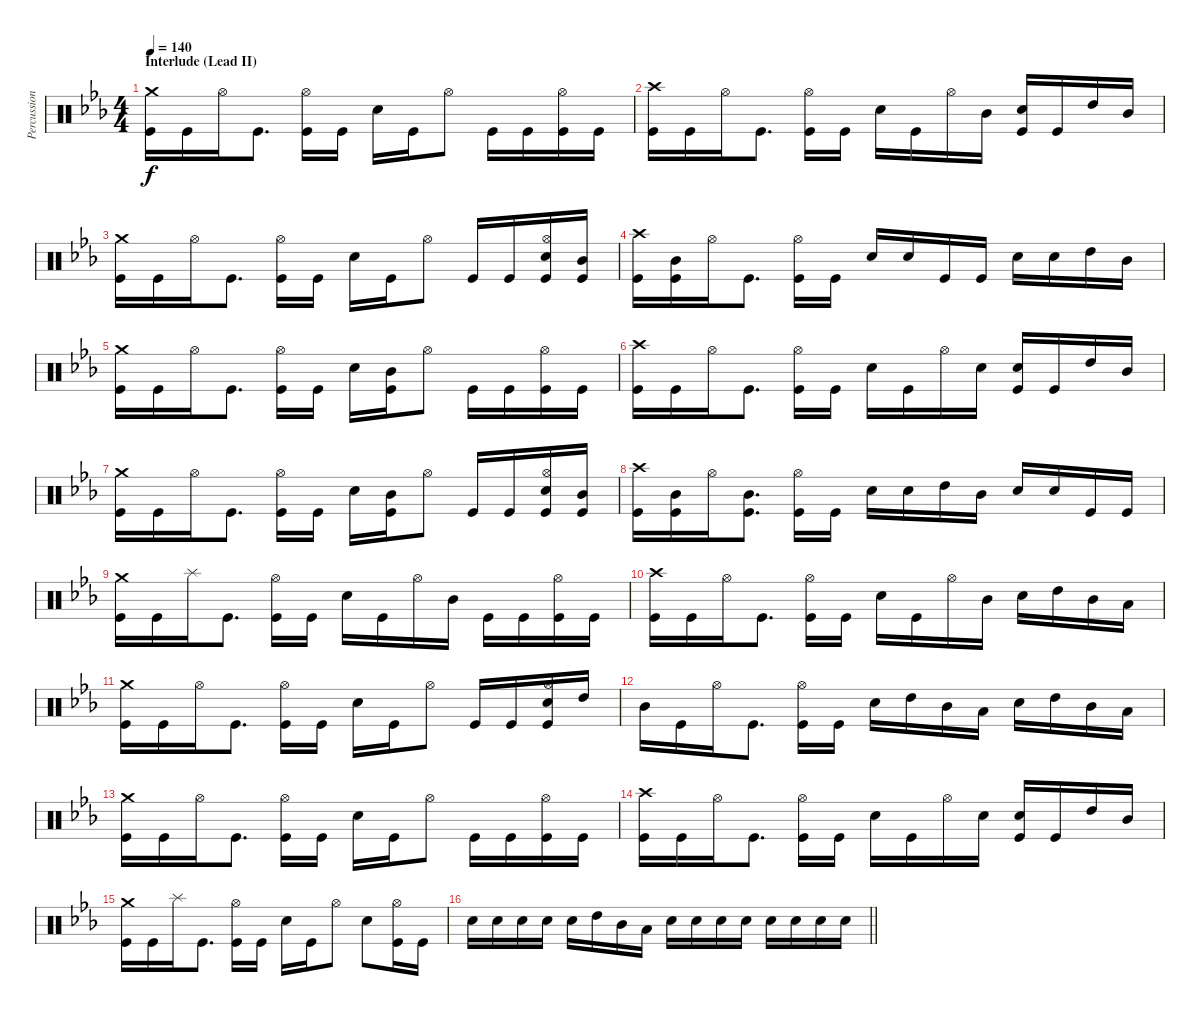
\track ("Percussion" "Percussion") {instrument percussion}
\staff {score}
\articulation defaults
\ts (4 4)
\section ("" "Interlude (Lead II)")
\tempo 140
\clef neutral
\ks eb
("Crash medium (hit)" "Kick (hit)").16{dy f} "Kick (hit)".16 "Hi-Hat (open)".16 "Kick (hit)".8{d} ("Hi-Hat (open)" "Kick (hit)").16 "Kick (hit)".16 "Electric Snare (hit)".16 "Kick (hit)".16 "Hi-Hat (open)".8 "Kick (hit)".16 "Kick (hit)".16 ("Hi-Hat (open)" "Kick (hit)").16 "Kick (hit)".16 |
("Crash high (hit)" "Kick (hit)").16 "Kick (hit)".16 "Hi-Hat (open)".16 "Kick (hit)".8{d} ("Hi-Hat (open)" "Kick (hit)").16 "Kick (hit)".16 "Electric Snare (hit)".16 "Kick (hit)".16 "Hi-Hat (open)".16 "Mid Tom (hit)".16 ("Electric Snare (hit)" "Kick (hit)").16 "Kick (hit)".16 "High Tom (hit)".16 "Mid Tom (hit)".16 |
("Crash medium (hit)" "Kick (hit)").16 "Kick (hit)".16 "Hi-Hat (open)".16 "Kick (hit)".8{d} ("Hi-Hat (open)" "Kick (hit)").16 "Kick (hit)".16 "Electric Snare (hit)".16 "Kick (hit)".16 "Hi-Hat (open)".8 "Kick (hit)".16 "Kick (hit)".16 ("Hi-Hat (open)" "Electric Snare (hit)" "Kick (hit)").16 ("Mid Tom (hit)" "Kick (hit)").16 |
("Crash high (hit)" "Kick (hit)").16 ("Mid Tom (hit)" "Kick (hit)").16 "Hi-Hat (open)".16 "Kick (hit)".8{d} ("Hi-Hat (open)" "Kick (hit)").16 "Kick (hit)".16 "Electric Snare (hit)".16 "Electric Snare (hit)".16 "Kick (hit)".16 "Kick (hit)".16 "Electric Snare (hit)".16 "Electric Snare (hit)".16 "High Tom (hit)".16 "Mid Tom (hit)".16 |
("Crash medium (hit)" "Kick (hit)").16 "Kick (hit)".16 "Hi-Hat (open)".16 "Kick (hit)".8{d} ("Hi-Hat (open)" "Kick (hit)").16 "Kick (hit)".16 "Electric Snare (hit)".16 ("Mid Tom (hit)" "Kick (hit)").16 "Hi-Hat (open)".8 "Kick (hit)".16 "Kick (hit)".16 ("Hi-Hat (open)" "Kick (hit)").16 "Kick (hit)".16 |
("Crash high (hit)" "Kick (hit)").16 "Kick (hit)".16 "Hi-Hat (open)".16 "Kick (hit)".8{d} ("Hi-Hat (open)" "Kick (hit)").16 "Kick (hit)".16 "Electric Snare (hit)".16 "Kick (hit)".16 "Hi-Hat (open)".16 "Electric Snare (hit)".16 ("Electric Snare (hit)" "Kick (hit)").16 "Kick (hit)".16 "High Tom (hit)".16 "Mid Tom (hit)".16 |
("Crash medium (hit)" "Kick (hit)").16 "Kick (hit)".16 "Hi-Hat (open)".16 "Kick (hit)".8{d} ("Hi-Hat (open)" "Kick (hit)").16 "Kick (hit)".16 "Electric Snare (hit)".16 ("Mid Tom (hit)" "Kick (hit)").16 "Hi-Hat (open)".8 "Kick (hit)".16 "Kick (hit)".16 ("Hi-Hat (open)" "Electric Snare (hit)" "Kick (hit)").16 ("Mid Tom (hit)" "Kick (hit)").16 |
("Crash high (hit)" "Kick (hit)").16 ("Mid Tom (hit)" "Kick (hit)").16 "Hi-Hat (open)".16 ("Mid Tom (hit)" "Kick (hit)").8{d} ("Hi-Hat (open)" "Kick (hit)").16 "Kick (hit)".16 "Electric Snare (hit)".16 "Electric Snare (hit)".16 "High Tom (hit)".16 "Mid Tom (hit)".16 "Electric Snare (hit)".16 "Electric Snare (hit)".16 "Kick (hit)".16 "Kick (hit)".16 |
("Crash medium (hit)" "Kick (hit)").16 "Kick (hit)".16 "Splash (hit)".16 "Kick (hit)".8{d} ("Hi-Hat (open)" "Kick (hit)").16 "Kick (hit)".16 "Electric Snare (hit)".16 "Kick (hit)".16 "Hi-Hat (open)".16 "Mid Tom (hit)".16 "Kick (hit)".16 "Kick (hit)".16 ("Hi-Hat (open)" "Kick (hit)").16 "Kick (hit)".16 |
("Crash high (hit)" "Kick (hit)").16 "Kick (hit)".16 "Hi-Hat (open)".16 "Kick (hit)".8{d} ("Hi-Hat (open)" "Kick (hit)").16 "Kick (hit)".16 "Electric Snare (hit)".16 "Kick (hit)".16 "Hi-Hat (open)".16 "Mid Tom (hit)".16 "Electric Snare (hit)".16 "High Tom (hit)".16 "Mid Tom (hit)".16 "Low Tom (hit)".16 |
("Crash medium (hit)" "Kick (hit)").16 "Kick (hit)".16 "Hi-Hat (open)".16 "Kick (hit)".8{d} ("Hi-Hat (open)" "Kick (hit)").16 "Kick (hit)".16 "Electric Snare (hit)".16 "Kick (hit)".16 "Hi-Hat (open)".8 "Kick (hit)".16 "Kick (hit)".16 ("Hi-Hat (open)" "Electric Snare (hit)" "Kick (hit)").16 "High Tom (hit)".16 |
"Mid Tom (hit)".16 "Kick (hit)".16 "Hi-Hat (open)".16 "Kick (hit)".8{d} ("Hi-Hat (open)" "Kick (hit)").16 "Kick (hit)".16 "Electric Snare (hit)".16 "High Tom (hit)".16 "Mid Tom (hit)".16 "Low Tom (hit)".16 "Electric Snare (hit)".16 "High Tom (hit)".16 "Mid Tom (hit)".16 "Low Tom (hit)".16 |
("Crash medium (hit)" "Kick (hit)").16 "Kick (hit)".16 "Hi-Hat (open)".16 "Kick (hit)".8{d} ("Hi-Hat (open)" "Kick (hit)").16 "Kick (hit)".16 "Electric Snare (hit)".16 "Kick (hit)".16 "Hi-Hat (open)".8 "Kick (hit)".16 "Kick (hit)".16 ("Hi-Hat (open)" "Kick (hit)").16 "Kick (hit)".16 |
("Crash high (hit)" "Kick (hit)").16 "Kick (hit)".16 "Hi-Hat (open)".16 "Kick (hit)".8{d} ("Hi-Hat (open)" "Kick (hit)").16 "Kick (hit)".16 "Electric Snare (hit)".16 "Kick (hit)".16 "Hi-Hat (open)".16 "Electric Snare (hit)".16 ("Electric Snare (hit)" "Kick (hit)").16 "Kick (hit)".16 "High Tom (hit)".16 "Mid Tom (hit)".16 |
("Crash medium (hit)" "Kick (hit)").16 "Kick (hit)".16 "Splash (hit)".16 "Kick (hit)".8{d} ("Hi-Hat (open)" "Kick (hit)").16 "Kick (hit)".16 "Electric Snare (hit)".16 "Kick (hit)".16 "Hi-Hat (open)".8 "Electric Snare (hit)".8 ("Hi-Hat (open)" "Kick (hit)").16 "Kick (hit)".16 |
\barLineRight lightlight "Electric Snare (hit)".16 "Electric Snare (hit)".16 "Electric Snare (hit)".16 "Electric Snare (hit)".16 "Electric Snare (hit)".16 "High Tom (hit)".16 "Mid Tom (hit)".16 "Low Tom (hit)".16 "Electric Snare (hit)".16 "Electric Snare (hit)".16 "Electric Snare (hit)".16 "Electric Snare (hit)".16 "Electric Snare (hit)".16 "Electric Snare (hit)".16 "Electric Snare (hit)".16 "Electric Snare (hit)".16
